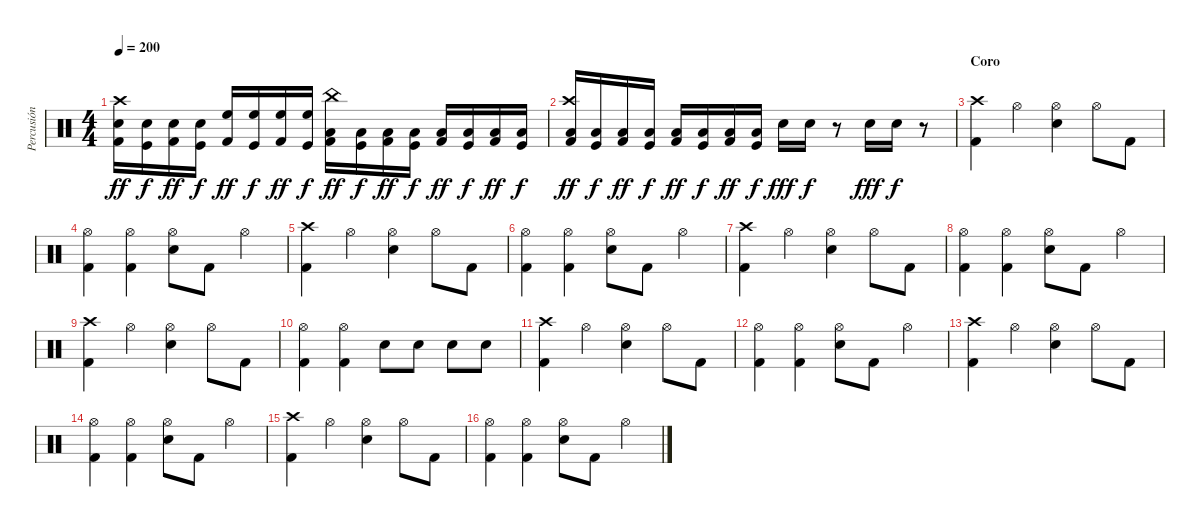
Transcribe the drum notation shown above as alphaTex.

\track ("Percusión" "Percusión") {instrument percussion}
\staff {score}
\articulation defaults
\ts (4 4)
\tempo 200
\clef neutral
\ks c
("Snare (hit) 2" "Kick (hit) 2" "Crash high (hit)").16{dy ff} ("Snare (hit) 2" "Kick (hit)").16{dy f} ("Snare (hit) 2" "Kick (hit) 2").16{dy ff} ("Snare (hit) 2" "Kick (hit)").16{dy f} ("High Floor Tom (hit)" "Kick (hit) 2").16{dy ff} ("High Floor Tom (hit)" "Kick (hit)").16{dy f} ("High Floor Tom (hit)" "Kick (hit) 2").16{dy ff} ("High Floor Tom (hit)" "Kick (hit)").16{dy f} ("Low Tom (hit)" "Kick (hit) 2" "China (hit)").16{dy ff} ("Low Tom (hit)" "Kick (hit)").16{dy f} ("Low Tom (hit)" "Kick (hit) 2").16{dy ff} ("Low Tom (hit)" "Kick (hit)").16{dy f} ("Low Tom (hit)" "Kick (hit) 2").16{dy ff} ("Low Tom (hit)" "Kick (hit)").16{dy f} ("Low Tom (hit)" "Kick (hit) 2").16{dy ff} ("Low Tom (hit)" "Kick (hit)").16{dy f} |
("Low Floor Tom (hit)" "Kick (hit) 2" "Crash high (hit)").16{dy ff} ("Low Floor Tom (hit)" "Kick (hit)").16{dy f} ("Low Floor Tom (hit)" "Kick (hit) 2").16{dy ff} ("Low Floor Tom (hit)" "Kick (hit)").16{dy f} ("Low Floor Tom (hit)" "Kick (hit) 2").16{dy ff} ("Low Floor Tom (hit)" "Kick (hit)").16{dy f} ("Low Floor Tom (hit)" "Kick (hit) 2").16{dy ff} ("Low Floor Tom (hit)" "Kick (hit)").16{dy f} "Snare (hit) 2".16{dy fff} "Snare (hit) 2".16{dy f} r.8 "Snare (hit) 2".16{dy fff} "Snare (hit) 2".16{dy f} r.8 |
\section ("" "Coro")
("Kick (hit) 2" "Crash high (hit)").4 "Hi-Hat (open)".4 ("Snare (hit) 2" "Hi-Hat (open)").4 "Hi-Hat (open)".8 "Kick (hit) 2".8 |
("Kick (hit) 2" "Hi-Hat (open)").4 ("Kick (hit) 2" "Hi-Hat (open)").4 ("Snare (hit) 2" "Hi-Hat (open)").8 "Kick (hit) 2".8 "Hi-Hat (open)".4 |
("Kick (hit) 2" "Crash high (hit)").4 "Hi-Hat (open)".4 ("Snare (hit) 2" "Hi-Hat (open)").4 "Hi-Hat (open)".8 "Kick (hit) 2".8 |
("Kick (hit) 2" "Hi-Hat (open)").4 ("Kick (hit) 2" "Hi-Hat (open)").4 ("Snare (hit) 2" "Hi-Hat (open)").8 "Kick (hit) 2".8 "Hi-Hat (open)".4 |
("Kick (hit) 2" "Crash high (hit)").4 "Hi-Hat (open)".4 ("Snare (hit) 2" "Hi-Hat (open)").4 "Hi-Hat (open)".8 "Kick (hit) 2".8 |
("Kick (hit) 2" "Hi-Hat (open)").4 ("Kick (hit) 2" "Hi-Hat (open)").4 ("Snare (hit) 2" "Hi-Hat (open)").8 "Kick (hit) 2".8 "Hi-Hat (open)".4 |
("Kick (hit) 2" "Crash high (hit)").4 "Hi-Hat (open)".4 ("Snare (hit) 2" "Hi-Hat (open)").4 "Hi-Hat (open)".8 "Kick (hit) 2".8 |
("Kick (hit) 2" "Hi-Hat (open)").4 ("Kick (hit) 2" "Hi-Hat (open)").4 "Snare (hit) 2".8 "Snare (hit) 2".8 "Snare (hit) 2".8 "Snare (hit) 2".8 |
("Kick (hit) 2" "Crash high (hit)").4 "Hi-Hat (open)".4 ("Snare (hit) 2" "Hi-Hat (open)").4 "Hi-Hat (open)".8 "Kick (hit) 2".8 |
("Kick (hit) 2" "Hi-Hat (open)").4 ("Kick (hit) 2" "Hi-Hat (open)").4 ("Snare (hit) 2" "Hi-Hat (open)").8 "Kick (hit) 2".8 "Hi-Hat (open)".4 |
("Kick (hit) 2" "Crash high (hit)").4 "Hi-Hat (open)".4 ("Snare (hit) 2" "Hi-Hat (open)").4 "Hi-Hat (open)".8 "Kick (hit) 2".8 |
("Kick (hit) 2" "Hi-Hat (open)").4 ("Kick (hit) 2" "Hi-Hat (open)").4 ("Snare (hit) 2" "Hi-Hat (open)").8 "Kick (hit) 2".8 "Hi-Hat (open)".4 |
("Kick (hit) 2" "Crash high (hit)").4 "Hi-Hat (open)".4 ("Snare (hit) 2" "Hi-Hat (open)").4 "Hi-Hat (open)".8 "Kick (hit) 2".8 |
("Kick (hit) 2" "Hi-Hat (open)").4 ("Kick (hit) 2" "Hi-Hat (open)").4 ("Snare (hit) 2" "Hi-Hat (open)").8 "Kick (hit) 2".8 "Hi-Hat (open)".4
